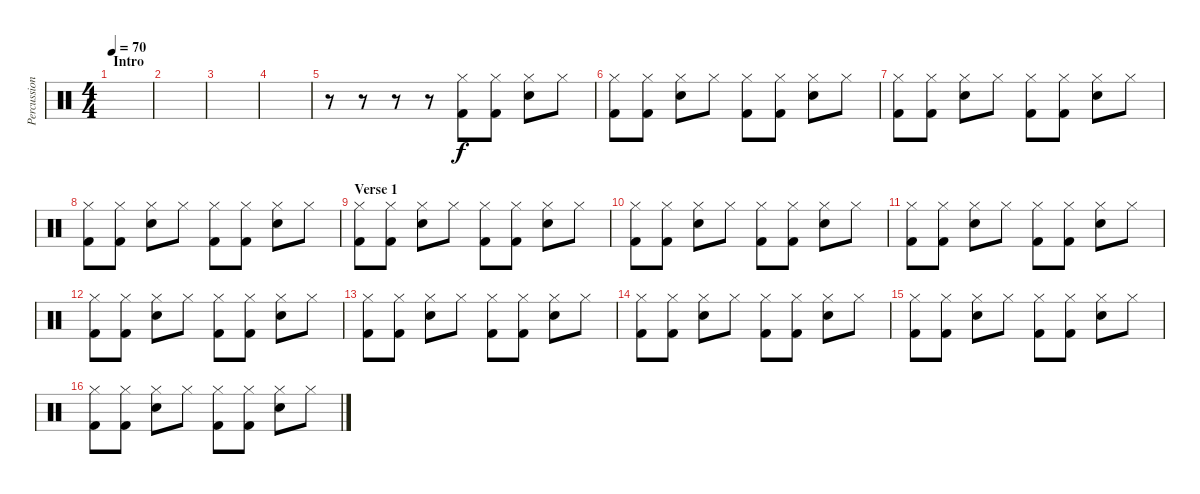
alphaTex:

\track ("Percussions" "Percussion") {instrument percussion}
\staff {score}
\articulation defaults
\ts (4 4)
\section ("" "Intro")
\tempo 70
\clef neutral
\ks c
|
|
|
|
r.8 r.8 r.8 r.8 ("Hi-Hat (closed)" "Kick (hit) 2").8 ("Hi-Hat (closed)" "Kick (hit) 2").8 ("Hi-Hat (closed)" "Snare (hit) 2").8 "Hi-Hat (closed)".8 |
("Kick (hit) 2" "Hi-Hat (closed)").8 ("Kick (hit) 2" "Hi-Hat (closed)").8 ("Electric Snare (hit)" "Hi-Hat (closed)").8 "Hi-Hat (closed)".8 ("Kick (hit) 2" "Hi-Hat (closed)").8 ("Kick (hit) 2" "Hi-Hat (closed)").8 ("Snare (hit) 2" "Hi-Hat (closed)").8 "Hi-Hat (closed)".8 |
("Kick (hit) 2" "Hi-Hat (closed)").8 ("Kick (hit) 2" "Hi-Hat (closed)").8 ("Electric Snare (hit)" "Hi-Hat (closed)").8 "Hi-Hat (closed)".8 ("Kick (hit) 2" "Hi-Hat (closed)").8 ("Kick (hit) 2" "Hi-Hat (closed)").8 ("Snare (hit) 2" "Hi-Hat (closed)").8 "Hi-Hat (closed)".8 |
("Kick (hit) 2" "Hi-Hat (closed)").8 ("Kick (hit) 2" "Hi-Hat (closed)").8 ("Electric Snare (hit)" "Hi-Hat (closed)").8 "Hi-Hat (closed)".8 ("Kick (hit) 2" "Hi-Hat (closed)").8 ("Kick (hit) 2" "Hi-Hat (closed)").8 ("Snare (hit) 2" "Hi-Hat (closed)").8 "Hi-Hat (closed)".8 |
\section ("" "Verse 1")
("Kick (hit) 2" "Hi-Hat (closed)").8 ("Kick (hit) 2" "Hi-Hat (closed)").8 ("Electric Snare (hit)" "Hi-Hat (closed)").8 "Hi-Hat (closed)".8 ("Kick (hit) 2" "Hi-Hat (closed)").8 ("Kick (hit) 2" "Hi-Hat (closed)").8 ("Snare (hit) 2" "Hi-Hat (closed)").8 "Hi-Hat (closed)".8 |
("Kick (hit) 2" "Hi-Hat (closed)").8 ("Kick (hit) 2" "Hi-Hat (closed)").8 ("Electric Snare (hit)" "Hi-Hat (closed)").8 "Hi-Hat (closed)".8 ("Kick (hit) 2" "Hi-Hat (closed)").8 ("Kick (hit) 2" "Hi-Hat (closed)").8 ("Snare (hit) 2" "Hi-Hat (closed)").8 "Hi-Hat (closed)".8 |
("Kick (hit) 2" "Hi-Hat (closed)").8 ("Kick (hit) 2" "Hi-Hat (closed)").8 ("Electric Snare (hit)" "Hi-Hat (closed)").8 "Hi-Hat (closed)".8 ("Kick (hit) 2" "Hi-Hat (closed)").8 ("Kick (hit) 2" "Hi-Hat (closed)").8 ("Snare (hit) 2" "Hi-Hat (closed)").8 "Hi-Hat (closed)".8 |
("Kick (hit) 2" "Hi-Hat (closed)").8 ("Kick (hit) 2" "Hi-Hat (closed)").8 ("Electric Snare (hit)" "Hi-Hat (closed)").8 "Hi-Hat (closed)".8 ("Kick (hit) 2" "Hi-Hat (closed)").8 ("Kick (hit) 2" "Hi-Hat (closed)").8 ("Snare (hit) 2" "Hi-Hat (closed)").8 "Hi-Hat (closed)".8 |
("Kick (hit) 2" "Hi-Hat (closed)").8 ("Kick (hit) 2" "Hi-Hat (closed)").8 ("Electric Snare (hit)" "Hi-Hat (closed)").8 "Hi-Hat (closed)".8 ("Kick (hit) 2" "Hi-Hat (closed)").8 ("Kick (hit) 2" "Hi-Hat (closed)").8 ("Snare (hit) 2" "Hi-Hat (closed)").8 "Hi-Hat (closed)".8 |
("Kick (hit) 2" "Hi-Hat (closed)").8 ("Kick (hit) 2" "Hi-Hat (closed)").8 ("Electric Snare (hit)" "Hi-Hat (closed)").8 "Hi-Hat (closed)".8 ("Kick (hit) 2" "Hi-Hat (closed)").8 ("Kick (hit) 2" "Hi-Hat (closed)").8 ("Snare (hit) 2" "Hi-Hat (closed)").8 "Hi-Hat (closed)".8 |
("Kick (hit) 2" "Hi-Hat (closed)").8 ("Kick (hit) 2" "Hi-Hat (closed)").8 ("Electric Snare (hit)" "Hi-Hat (closed)").8 "Hi-Hat (closed)".8 ("Kick (hit) 2" "Hi-Hat (closed)").8 ("Kick (hit) 2" "Hi-Hat (closed)").8 ("Snare (hit) 2" "Hi-Hat (closed)").8 "Hi-Hat (closed)".8 |
("Kick (hit) 2" "Hi-Hat (closed)").8 ("Kick (hit) 2" "Hi-Hat (closed)").8 ("Electric Snare (hit)" "Hi-Hat (closed)").8 "Hi-Hat (closed)".8 ("Kick (hit) 2" "Hi-Hat (closed)").8 ("Kick (hit) 2" "Hi-Hat (closed)").8 ("Snare (hit) 2" "Hi-Hat (closed)").8 "Hi-Hat (closed)".8
